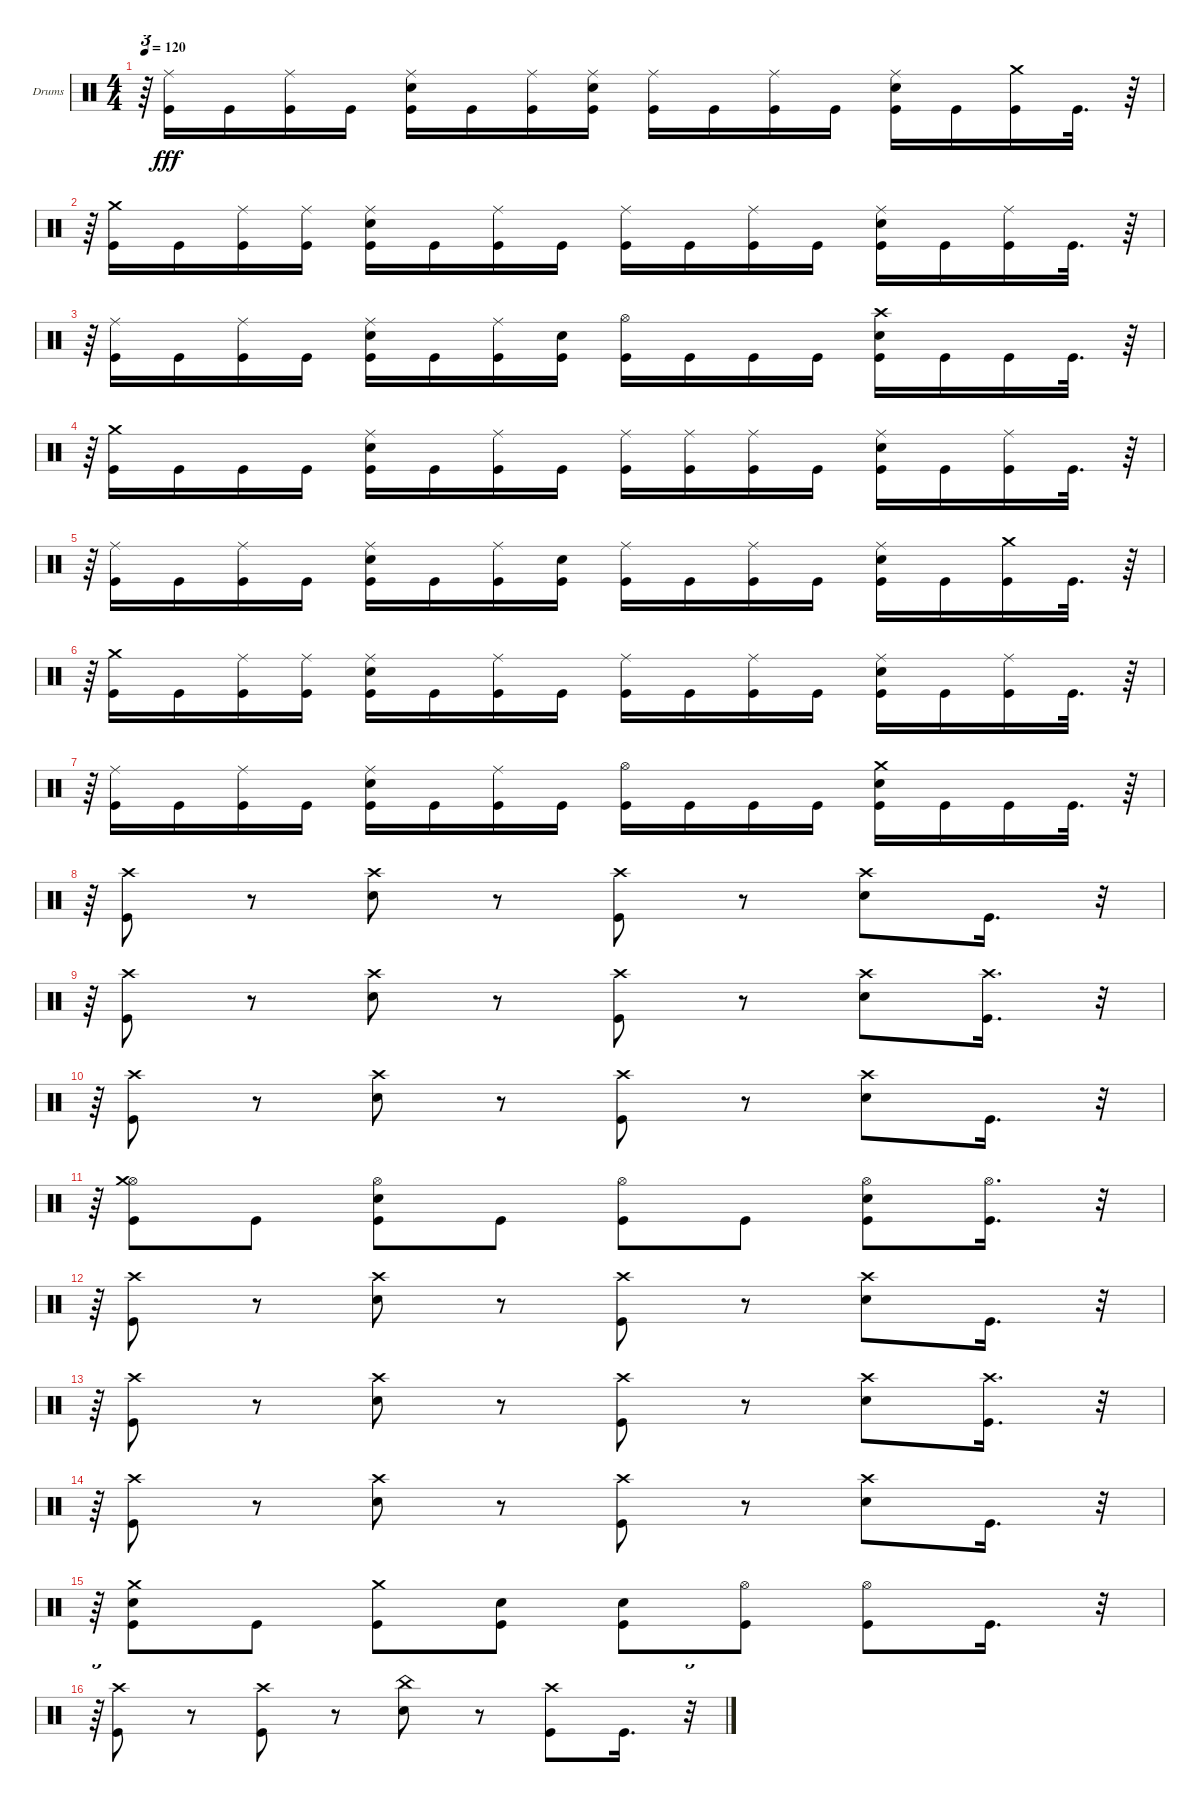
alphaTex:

\bracketExtendMode groupsimilarinstruments
\firstSystemTrackNameOrientation horizontal
\otherSystemsTrackNameOrientation horizontal
\track ("Drums" "Drums") {instrument percussion}
\staff {score}
\articulation defaults
\ts (4 4)
\tempo 120
\clef neutral
\ks c
r.64{tu (3 2) dy fff} ("Kick (hit)" "Ride (middle)").16 "Kick (hit)".16 ("Ride (middle)" "Kick (hit)").16 "Kick (hit)".16 ("Kick (hit)" "Snare (hit) 2" "Ride (middle)").16 "Kick (hit)".16 ("Kick (hit)" "Ride (middle)").16 ("Ride (middle)" "Kick (hit)" "Snare (hit) 2").16 ("Kick (hit)" "Ride (middle)").16 "Kick (hit)".16 ("Kick (hit)" "Ride (middle)").16 "Kick (hit)".16 ("Kick (hit)" "Ride (middle)" "Snare (hit) 2").16 "Kick (hit)".16 ("Kick (hit)" "Crash medium (hit)").16 "Kick (hit)".32{d} r.64 |
r.64{tu (3 2)} ("Crash medium (hit)" "Kick (hit)").16 "Kick (hit)".16 ("Ride (middle)" "Kick (hit)").16 ("Kick (hit)" "Ride (middle)").16 ("Ride (middle)" "Kick (hit)" "Snare (hit) 2").16 "Kick (hit)".16 ("Ride (middle)" "Kick (hit)").16 "Kick (hit)".16 ("Ride (middle)" "Kick (hit)").16 "Kick (hit)".16 ("Ride (middle)" "Kick (hit)").16 "Kick (hit)".16 ("Snare (hit) 2" "Ride (middle)" "Kick (hit)").16 "Kick (hit)".16 ("Kick (hit)" "Ride (middle)").16 "Kick (hit)".32{d} r.64 |
r.64{tu (3 2)} ("Ride (middle)" "Kick (hit)").16 "Kick (hit)".16 ("Ride (middle)" "Kick (hit)").16 "Kick (hit)".16 ("Ride (middle)" "Kick (hit)" "Snare (hit) 2").16 "Kick (hit)".16 ("Ride (middle)" "Kick (hit)").16 ("Kick (hit)" "Snare (hit) 2").16 ("Hi-Hat (open)" "Kick (hit)").16 "Kick (hit)".16 "Kick (hit)".16 "Kick (hit)".16 ("Kick (hit)" "Crash high (hit)" "Snare (hit) 2").16 "Kick (hit)".16 "Kick (hit)".16 "Kick (hit)".32{d} r.64 |
r.64{tu (3 2)} ("Crash medium (hit)" "Kick (hit)").16 "Kick (hit)".16 "Kick (hit)".16 "Kick (hit)".16 ("Ride (middle)" "Snare (hit) 2" "Kick (hit)").16 "Kick (hit)".16 ("Ride (middle)" "Kick (hit)").16 "Kick (hit)".16 ("Ride (middle)" "Kick (hit)").16 ("Kick (hit)" "Ride (middle)").16 ("Ride (middle)" "Kick (hit)").16 "Kick (hit)".16 ("Ride (middle)" "Snare (hit) 2" "Kick (hit)").16 "Kick (hit)".16 ("Ride (middle)" "Kick (hit)").16 "Kick (hit)".32{d} r.64 |
r.64{tu (3 2)} ("Ride (middle)" "Kick (hit)").16 "Kick (hit)".16 ("Ride (middle)" "Kick (hit)").16 "Kick (hit)".16 ("Ride (middle)" "Snare (hit) 2" "Kick (hit)").16 "Kick (hit)".16 ("Ride (middle)" "Kick (hit)").16 ("Snare (hit) 2" "Kick (hit)").16 ("Ride (middle)" "Kick (hit)").16 "Kick (hit)".16 ("Ride (middle)" "Kick (hit)").16 "Kick (hit)".16 ("Ride (middle)" "Snare (hit) 2" "Kick (hit)").16 "Kick (hit)".16 ("Crash medium (hit)" "Kick (hit)").16 "Kick (hit)".32{d} r.64 |
r.64{tu (3 2)} ("Crash medium (hit)" "Kick (hit)").16 "Kick (hit)".16 ("Ride (middle)" "Kick (hit)").16 ("Ride (middle)" "Kick (hit)").16 ("Ride (middle)" "Snare (hit) 2" "Kick (hit)").16 "Kick (hit)".16 ("Ride (middle)" "Kick (hit)").16 "Kick (hit)".16 ("Ride (middle)" "Kick (hit)").16 "Kick (hit)".16 ("Ride (middle)" "Kick (hit)").16 "Kick (hit)".16 ("Ride (middle)" "Snare (hit) 2" "Kick (hit)").16 "Kick (hit)".16 ("Ride (middle)" "Kick (hit)").16 "Kick (hit)".32{d} r.64 |
r.64{tu (3 2)} ("Ride (middle)" "Kick (hit)").16 "Kick (hit)".16 ("Ride (middle)" "Kick (hit)").16 "Kick (hit)".16 ("Ride (middle)" "Snare (hit) 2" "Kick (hit)").16 "Kick (hit)".16 ("Ride (middle)" "Kick (hit)").16 "Kick (hit)".16 ("Hi-Hat (open)" "Kick (hit)").16 "Kick (hit)".16 "Kick (hit)".16 "Kick (hit)".16 ("Snare (hit) 2" "Kick (hit)" "Crash medium (hit)").16 "Kick (hit)".16 "Kick (hit)".16 "Kick (hit)".32{d} r.64 |
r.64{tu (3 2)} ("Kick (hit)" "Crash high (hit)").8 r.8 ("Snare (hit) 2" "Crash high (hit)").8 r.8 ("Kick (hit)" "Crash high (hit)").8 r.8 ("Snare (hit) 2" "Crash high (hit)").8 "Kick (hit)".16{d} r.32{tu (3 2)} |
r.64{tu (3 2)} ("Kick (hit)" "Crash high (hit)").8 r.8 ("Snare (hit) 2" "Crash high (hit)").8 r.8 ("Kick (hit)" "Crash high (hit)").8 r.8 ("Snare (hit) 2" "Crash high (hit)").8 ("Crash high (hit)" "Kick (hit)").16{d} r.32{tu (3 2)} |
r.64{tu (3 2)} ("Kick (hit)" "Crash high (hit)").8 r.8 ("Snare (hit) 2" "Crash high (hit)").8 r.8 ("Kick (hit)" "Crash high (hit)").8 r.8 ("Snare (hit) 2" "Crash high (hit)").8 "Kick (hit)".16{d} r.32{tu (3 2)} |
r.64{tu (3 2)} ("Hi-Hat (open)" "Crash medium (hit)" "Kick (hit)").8 "Kick (hit)".8 ("Hi-Hat (open)" "Snare (hit) 2" "Kick (hit)").8 "Kick (hit)".8 ("Hi-Hat (open)" "Kick (hit)").8 "Kick (hit)".8 ("Hi-Hat (open)" "Snare (hit) 2" "Kick (hit)").8 ("Hi-Hat (open)" "Kick (hit)").16{d} r.32{tu (3 2)} |
r.64{tu (3 2)} ("Kick (hit)" "Crash high (hit)").8 r.8 ("Snare (hit) 2" "Crash high (hit)").8 r.8 ("Kick (hit)" "Crash high (hit)").8 r.8 ("Snare (hit) 2" "Crash high (hit)").8 "Kick (hit)".16{d} r.32{tu (3 2)} |
r.64{tu (3 2)} ("Kick (hit)" "Crash high (hit)").8 r.8 ("Snare (hit) 2" "Crash high (hit)").8 r.8 ("Kick (hit)" "Crash high (hit)").8 r.8 ("Snare (hit) 2" "Crash high (hit)").8 ("Crash high (hit)" "Kick (hit)").16{d} r.32{tu (3 2)} |
r.64{tu (3 2)} ("Kick (hit)" "Crash high (hit)").8 r.8 ("Snare (hit) 2" "Crash high (hit)").8 r.8 ("Kick (hit)" "Crash high (hit)").8 r.8 ("Snare (hit) 2" "Crash high (hit)").8 "Kick (hit)".16{d} r.32{tu (3 2)} |
r.64{tu (3 2)} ("Crash medium (hit)" "Snare (hit) 2" "Kick (hit)").8 "Kick (hit)".8 ("Crash medium (hit)" "Kick (hit)").8 ("Snare (hit) 2" "Kick (hit)").8 ("Snare (hit) 2" "Kick (hit)").8 ("Hi-Hat (open)" "Kick (hit)").8 ("Hi-Hat (open)" "Kick (hit)").8 "Kick (hit)".16{d} r.32{tu (3 2)} |
r.64{tu (3 2)} ("Crash high (hit)" "Kick (hit)").8 r.8 ("Crash high (hit)" "Kick (hit)").8 r.8 ("China (hit)" "Snare (hit) 2").8 r.8 ("Crash high (hit)" "Kick (hit)").8 "Kick (hit)".16{d} r.32{tu (3 2)}
